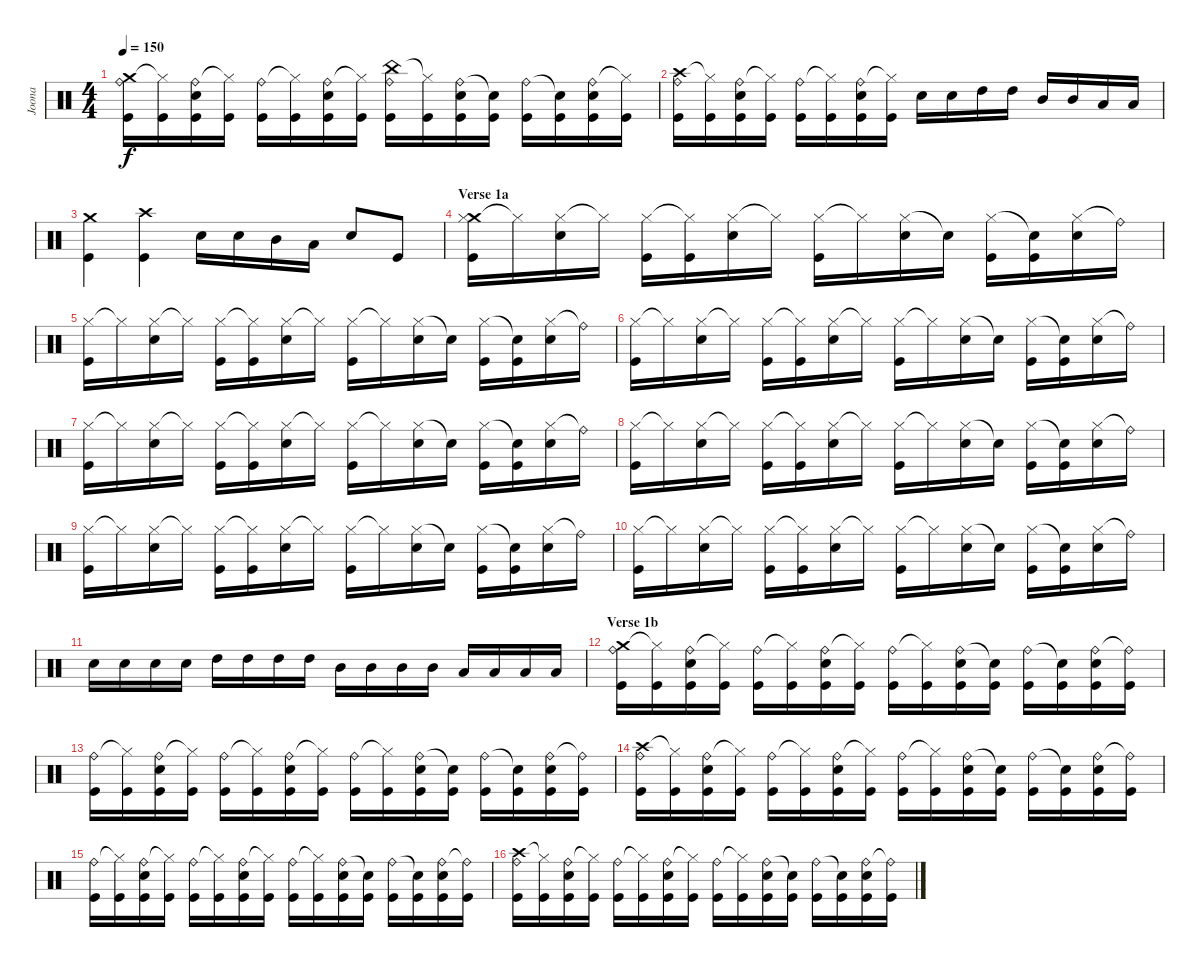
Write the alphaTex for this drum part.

\track ("Joona" "Joona") {instrument percussion}
\staff {score}
\articulation defaults
\ts (4 4)
\tempo 150
\clef neutral
\ks c
("Crash medium (hit)" "Ride (bell)" "Kick (hit)").16{dy f} ("Hi-Hat (closed)"{t} "Kick (hit)").16 ("Ride (bell)" "Snare (hit) 2" "Kick (hit)").16 ("Hi-Hat (closed)"{t} "Kick (hit)").16 ("Ride (bell)" "Kick (hit)").16 ("Hi-Hat (closed)"{t} "Kick (hit)").16 ("Ride (bell)" "Snare (hit) 2" "Kick (hit)").16 ("Hi-Hat (closed)"{t} "Kick (hit)").16 ("China (hit)" "Ride (bell)" "Kick (hit)").16 ("Hi-Hat (closed)"{t} "Kick (hit)").16 ("Ride (bell)" "Snare (hit) 2" "Kick (hit)").16 ("Snare (hit)"{t} "Kick (hit)").16 ("Ride (bell)" "Kick (hit)").16 ("Snare (hit)"{t} "Kick (hit)").16 ("Ride (bell)" "Snare (hit) 2" "Kick (hit)").16 ("Hi-Hat (closed)"{t} "Kick (hit)").16 |
("Crash high (hit)" "Ride (bell)" "Kick (hit)").16 ("Hi-Hat (closed)"{t} "Kick (hit)").16 ("Ride (bell)" "Snare (hit) 2" "Kick (hit)").16 ("Hi-Hat (closed)"{t} "Kick (hit)").16 ("Ride (bell)" "Kick (hit)").16 ("Hi-Hat (closed)"{t} "Kick (hit)").16 ("Ride (bell)" "Snare (hit) 2" "Kick (hit)").16 ("Hi-Hat (closed)"{t} "Kick (hit)").16 "Snare (hit) 2".16 "Snare (hit) 2".16 "High Tom (hit)".16 "High Tom (hit)".16 "Mid Tom (hit)".16 "Mid Tom (hit)".16 "Low Tom (hit)".16 "Low Tom (hit)".16 |
("Crash medium (hit)" "Kick (hit)").4 ("Crash high (hit)" "Kick (hit)").4 "Snare (hit) 2".16 "Snare (hit) 2".16 "Mid Tom (hit)".16 "Low Tom (hit)".16 "Snare (hit) 2".8 "Kick (hit)".8 |
\section ("" "Verse 1a")
("Crash medium (hit)" "Hi-Hat (closed)" "Kick (hit)").16 "Hi-Hat (closed)"{t}.16 ("Hi-Hat (closed)" "Snare (hit) 2").16 "Hi-Hat (closed)"{t}.16 ("Hi-Hat (closed)" "Kick (hit)").16 ("Hi-Hat (closed)"{t} "Kick (hit)").16 ("Hi-Hat (closed)" "Snare (hit) 2").16 "Hi-Hat (closed)"{t}.16 ("Hi-Hat (closed)" "Kick (hit)").16 "Hi-Hat (closed)"{t}.16 ("Hi-Hat (closed)" "Snare (hit) 2").16 "Snare (hit)"{t}.16 ("Hi-Hat (closed)" "Kick (hit)").16 ("Snare (hit)"{t} "Kick (hit)").16 ("Hi-Hat (closed)" "Snare (hit) 2").16 "Ride (bell)"{t}.16 |
("Hi-Hat (closed)" "Kick (hit)").16 "Hi-Hat (closed)"{t}.16 ("Hi-Hat (closed)" "Snare (hit) 2").16 "Hi-Hat (closed)"{t}.16 ("Hi-Hat (closed)" "Kick (hit)").16 ("Hi-Hat (closed)"{t} "Kick (hit)").16 ("Hi-Hat (closed)" "Snare (hit) 2").16 "Hi-Hat (closed)"{t}.16 ("Hi-Hat (closed)" "Kick (hit)").16 "Hi-Hat (closed)"{t}.16 ("Hi-Hat (closed)" "Snare (hit) 2").16 "Snare (hit)"{t}.16 ("Hi-Hat (closed)" "Kick (hit)").16 ("Snare (hit)"{t} "Kick (hit)").16 ("Hi-Hat (closed)" "Snare (hit) 2").16 "Ride (bell)"{t}.16 |
("Hi-Hat (closed)" "Kick (hit)").16 "Hi-Hat (closed)"{t}.16 ("Hi-Hat (closed)" "Snare (hit) 2").16 "Hi-Hat (closed)"{t}.16 ("Hi-Hat (closed)" "Kick (hit)").16 ("Hi-Hat (closed)"{t} "Kick (hit)").16 ("Hi-Hat (closed)" "Snare (hit) 2").16 "Hi-Hat (closed)"{t}.16 ("Hi-Hat (closed)" "Kick (hit)").16 "Hi-Hat (closed)"{t}.16 ("Hi-Hat (closed)" "Snare (hit) 2").16 "Snare (hit)"{t}.16 ("Hi-Hat (closed)" "Kick (hit)").16 ("Snare (hit)"{t} "Kick (hit)").16 ("Hi-Hat (closed)" "Snare (hit) 2").16 "Ride (bell)"{t}.16 |
("Hi-Hat (closed)" "Kick (hit)").16 "Hi-Hat (closed)"{t}.16 ("Hi-Hat (closed)" "Snare (hit) 2").16 "Hi-Hat (closed)"{t}.16 ("Hi-Hat (closed)" "Kick (hit)").16 ("Hi-Hat (closed)"{t} "Kick (hit)").16 ("Hi-Hat (closed)" "Snare (hit) 2").16 "Hi-Hat (closed)"{t}.16 ("Hi-Hat (closed)" "Kick (hit)").16 "Hi-Hat (closed)"{t}.16 ("Hi-Hat (closed)" "Snare (hit) 2").16 "Snare (hit)"{t}.16 ("Hi-Hat (closed)" "Kick (hit)").16 ("Snare (hit)"{t} "Kick (hit)").16 ("Hi-Hat (closed)" "Snare (hit) 2").16 "Ride (bell)"{t}.16 |
("Hi-Hat (closed)" "Kick (hit)").16 "Hi-Hat (closed)"{t}.16 ("Hi-Hat (closed)" "Snare (hit) 2").16 "Hi-Hat (closed)"{t}.16 ("Hi-Hat (closed)" "Kick (hit)").16 ("Hi-Hat (closed)"{t} "Kick (hit)").16 ("Hi-Hat (closed)" "Snare (hit) 2").16 "Hi-Hat (closed)"{t}.16 ("Hi-Hat (closed)" "Kick (hit)").16 "Hi-Hat (closed)"{t}.16 ("Hi-Hat (closed)" "Snare (hit) 2").16 "Snare (hit)"{t}.16 ("Hi-Hat (closed)" "Kick (hit)").16 ("Snare (hit)"{t} "Kick (hit)").16 ("Hi-Hat (closed)" "Snare (hit) 2").16 "Ride (bell)"{t}.16 |
("Hi-Hat (closed)" "Kick (hit)").16 "Hi-Hat (closed)"{t}.16 ("Hi-Hat (closed)" "Snare (hit) 2").16 "Hi-Hat (closed)"{t}.16 ("Hi-Hat (closed)" "Kick (hit)").16 ("Hi-Hat (closed)"{t} "Kick (hit)").16 ("Hi-Hat (closed)" "Snare (hit) 2").16 "Hi-Hat (closed)"{t}.16 ("Hi-Hat (closed)" "Kick (hit)").16 "Hi-Hat (closed)"{t}.16 ("Hi-Hat (closed)" "Snare (hit) 2").16 "Snare (hit)"{t}.16 ("Hi-Hat (closed)" "Kick (hit)").16 ("Snare (hit)"{t} "Kick (hit)").16 ("Hi-Hat (closed)" "Snare (hit) 2").16 "Ride (bell)"{t}.16 |
("Hi-Hat (closed)" "Kick (hit)").16 "Hi-Hat (closed)"{t}.16 ("Hi-Hat (closed)" "Snare (hit) 2").16 "Hi-Hat (closed)"{t}.16 ("Hi-Hat (closed)" "Kick (hit)").16 ("Hi-Hat (closed)"{t} "Kick (hit)").16 ("Hi-Hat (closed)" "Snare (hit) 2").16 "Hi-Hat (closed)"{t}.16 ("Hi-Hat (closed)" "Kick (hit)").16 "Hi-Hat (closed)"{t}.16 ("Hi-Hat (closed)" "Snare (hit) 2").16 "Snare (hit)"{t}.16 ("Hi-Hat (closed)" "Kick (hit)").16 ("Snare (hit)"{t} "Kick (hit)").16 ("Hi-Hat (closed)" "Snare (hit) 2").16 "Ride (bell)"{t}.16 |
"Snare (hit) 2".16 "Snare (hit) 2".16 "Snare (hit) 2".16 "Snare (hit) 2".16 "High Tom (hit)".16 "High Tom (hit)".16 "High Tom (hit)".16 "High Tom (hit)".16 "Mid Tom (hit)".16 "Mid Tom (hit)".16 "Mid Tom (hit)".16 "Mid Tom (hit)".16 "Low Tom (hit)".16 "Low Tom (hit)".16 "Low Tom (hit)".16 "Low Tom (hit)".16 |
\section ("" "Verse 1b")
("Crash medium (hit)" "Ride (bell)" "Kick (hit)").16 ("Hi-Hat (closed)"{t} "Kick (hit)").16 ("Ride (bell)" "Snare (hit) 2" "Kick (hit)").16 ("Hi-Hat (closed)"{t} "Kick (hit)").16 ("Ride (bell)" "Kick (hit)").16 ("Hi-Hat (closed)"{t} "Kick (hit)").16 ("Ride (bell)" "Snare (hit) 2" "Kick (hit)").16 ("Hi-Hat (closed)"{t} "Kick (hit)").16 ("Ride (bell)" "Kick (hit)").16 ("Hi-Hat (closed)"{t} "Kick (hit)").16 ("Ride (bell)" "Snare (hit) 2" "Kick (hit)").16 ("Snare (hit)"{t} "Kick (hit)").16 ("Ride (bell)" "Kick (hit)").16 ("Snare (hit)"{t} "Kick (hit)").16 ("Ride (bell)" "Snare (hit) 2" "Kick (hit)").16 ("Ride (bell)"{t} "Kick (hit)").16 |
("Ride (bell)" "Kick (hit)").16 ("Hi-Hat (closed)"{t} "Kick (hit)").16 ("Ride (bell)" "Snare (hit) 2" "Kick (hit)").16 ("Hi-Hat (closed)"{t} "Kick (hit)").16 ("Ride (bell)" "Kick (hit)").16 ("Hi-Hat (closed)"{t} "Kick (hit)").16 ("Ride (bell)" "Snare (hit) 2" "Kick (hit)").16 ("Hi-Hat (closed)"{t} "Kick (hit)").16 ("Ride (bell)" "Kick (hit)").16 ("Hi-Hat (closed)"{t} "Kick (hit)").16 ("Ride (bell)" "Snare (hit) 2" "Kick (hit)").16 ("Snare (hit)"{t} "Kick (hit)").16 ("Ride (bell)" "Kick (hit)").16 ("Snare (hit)"{t} "Kick (hit)").16 ("Ride (bell)" "Snare (hit) 2" "Kick (hit)").16 ("Ride (bell)"{t} "Kick (hit)").16 |
("Crash high (hit)" "Ride (bell)" "Kick (hit)").16 ("Hi-Hat (closed)"{t} "Kick (hit)").16 ("Ride (bell)" "Snare (hit) 2" "Kick (hit)").16 ("Hi-Hat (closed)"{t} "Kick (hit)").16 ("Ride (bell)" "Kick (hit)").16 ("Hi-Hat (closed)"{t} "Kick (hit)").16 ("Ride (bell)" "Snare (hit) 2" "Kick (hit)").16 ("Hi-Hat (closed)"{t} "Kick (hit)").16 ("Ride (bell)" "Kick (hit)").16 ("Hi-Hat (closed)"{t} "Kick (hit)").16 ("Ride (bell)" "Snare (hit) 2" "Kick (hit)").16 ("Snare (hit)"{t} "Kick (hit)").16 ("Ride (bell)" "Kick (hit)").16 ("Snare (hit)"{t} "Kick (hit)").16 ("Ride (bell)" "Snare (hit) 2" "Kick (hit)").16 ("Ride (bell)"{t} "Kick (hit)").16 |
("Ride (bell)" "Kick (hit)").16 ("Hi-Hat (closed)"{t} "Kick (hit)").16 ("Ride (bell)" "Snare (hit) 2" "Kick (hit)").16 ("Hi-Hat (closed)"{t} "Kick (hit)").16 ("Ride (bell)" "Kick (hit)").16 ("Hi-Hat (closed)"{t} "Kick (hit)").16 ("Ride (bell)" "Snare (hit) 2" "Kick (hit)").16 ("Hi-Hat (closed)"{t} "Kick (hit)").16 ("Ride (bell)" "Kick (hit)").16 ("Hi-Hat (closed)"{t} "Kick (hit)").16 ("Ride (bell)" "Snare (hit) 2" "Kick (hit)").16 ("Snare (hit)"{t} "Kick (hit)").16 ("Ride (bell)" "Kick (hit)").16 ("Snare (hit)"{t} "Kick (hit)").16 ("Ride (bell)" "Snare (hit) 2" "Kick (hit)").16 ("Ride (bell)"{t} "Kick (hit)").16 |
("Crash high (hit)" "Ride (bell)" "Kick (hit)").16 ("Hi-Hat (closed)"{t} "Kick (hit)").16 ("Ride (bell)" "Snare (hit) 2" "Kick (hit)").16 ("Hi-Hat (closed)"{t} "Kick (hit)").16 ("Ride (bell)" "Kick (hit)").16 ("Hi-Hat (closed)"{t} "Kick (hit)").16 ("Ride (bell)" "Snare (hit) 2" "Kick (hit)").16 ("Hi-Hat (closed)"{t} "Kick (hit)").16 ("Ride (bell)" "Kick (hit)").16 ("Hi-Hat (closed)"{t} "Kick (hit)").16 ("Ride (bell)" "Snare (hit) 2" "Kick (hit)").16 ("Snare (hit)"{t} "Kick (hit)").16 ("Ride (bell)" "Kick (hit)").16 ("Snare (hit)"{t} "Kick (hit)").16 ("Ride (bell)" "Snare (hit) 2" "Kick (hit)").16 ("Ride (bell)"{t} "Kick (hit)").16
